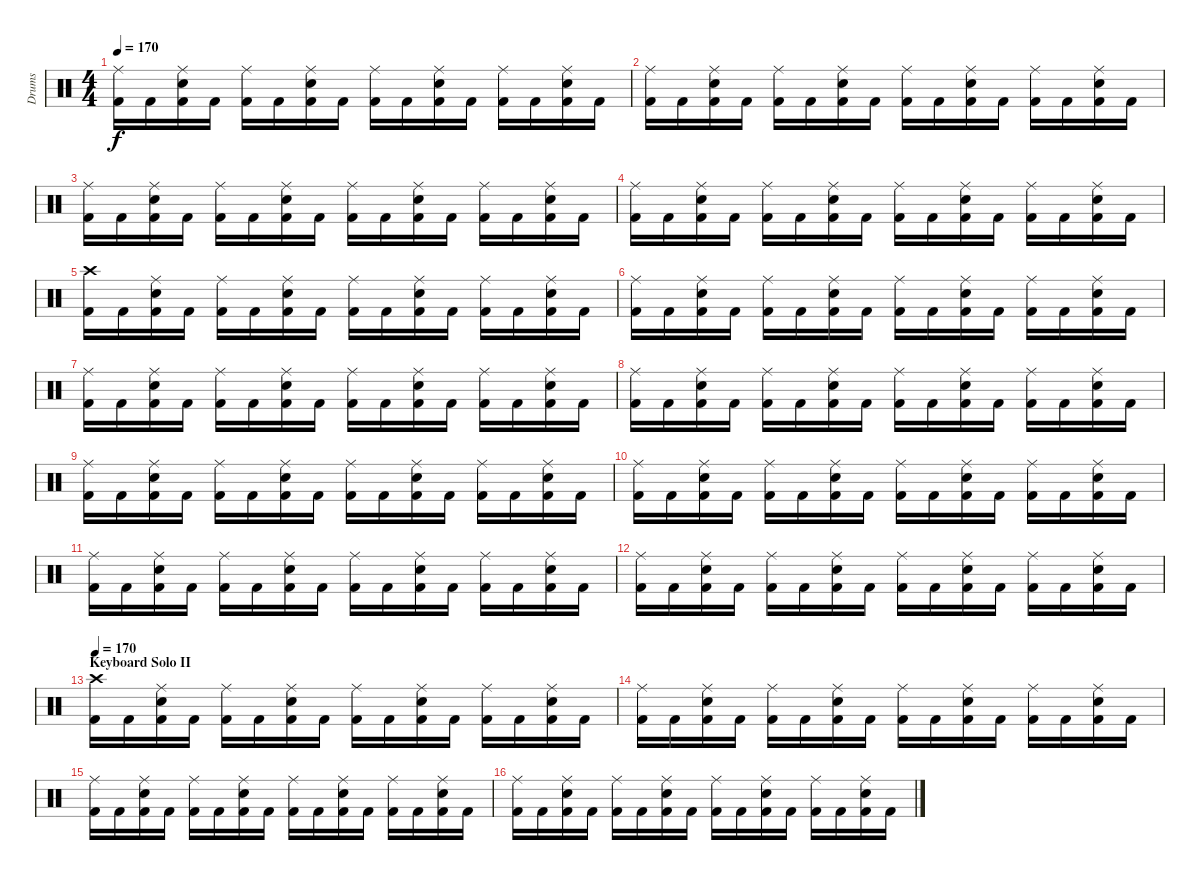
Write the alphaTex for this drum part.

\track ("Drums" "Drums") {instrument percussion}
\staff {score}
\articulation defaults
\ts (4 4)
\tempo 170
\clef neutral
\ks c
("Ride (middle)" "Kick (hit) 2").16{dy f} "Kick (hit) 2".16 ("Ride (middle)" "Electric Snare (hit)" "Kick (hit) 2").16 "Kick (hit) 2".16 ("Ride (middle)" "Kick (hit) 2").16 "Kick (hit) 2".16 ("Ride (middle)" "Electric Snare (hit)" "Kick (hit) 2").16 "Kick (hit) 2".16 ("Ride (middle)" "Kick (hit) 2").16 "Kick (hit) 2".16 ("Ride (middle)" "Electric Snare (hit)" "Kick (hit) 2").16 "Kick (hit) 2".16 ("Ride (middle)" "Kick (hit) 2").16 "Kick (hit) 2".16 ("Ride (middle)" "Electric Snare (hit)" "Kick (hit) 2").16 "Kick (hit) 2".16 |
("Ride (middle)" "Kick (hit) 2").16 "Kick (hit) 2".16 ("Ride (middle)" "Electric Snare (hit)" "Kick (hit) 2").16 "Kick (hit) 2".16 ("Ride (middle)" "Kick (hit) 2").16 "Kick (hit) 2".16 ("Ride (middle)" "Electric Snare (hit)" "Kick (hit) 2").16 "Kick (hit) 2".16 ("Ride (middle)" "Kick (hit) 2").16 "Kick (hit) 2".16 ("Ride (middle)" "Electric Snare (hit)" "Kick (hit) 2").16 "Kick (hit) 2".16 ("Ride (middle)" "Kick (hit) 2").16 "Kick (hit) 2".16 ("Ride (middle)" "Electric Snare (hit)" "Kick (hit) 2").16 "Kick (hit) 2".16 |
("Ride (middle)" "Kick (hit) 2").16 "Kick (hit) 2".16 ("Ride (middle)" "Electric Snare (hit)" "Kick (hit) 2").16 "Kick (hit) 2".16 ("Ride (middle)" "Kick (hit) 2").16 "Kick (hit) 2".16 ("Ride (middle)" "Electric Snare (hit)" "Kick (hit) 2").16 "Kick (hit) 2".16 ("Ride (middle)" "Kick (hit) 2").16 "Kick (hit) 2".16 ("Ride (middle)" "Electric Snare (hit)" "Kick (hit) 2").16 "Kick (hit) 2".16 ("Ride (middle)" "Kick (hit) 2").16 "Kick (hit) 2".16 ("Ride (middle)" "Electric Snare (hit)" "Kick (hit) 2").16 "Kick (hit) 2".16 |
("Ride (middle)" "Kick (hit) 2").16 "Kick (hit) 2".16 ("Ride (middle)" "Electric Snare (hit)" "Kick (hit) 2").16 "Kick (hit) 2".16 ("Ride (middle)" "Kick (hit) 2").16 "Kick (hit) 2".16 ("Ride (middle)" "Electric Snare (hit)" "Kick (hit) 2").16 "Kick (hit) 2".16 ("Ride (middle)" "Kick (hit) 2").16 "Kick (hit) 2".16 ("Ride (middle)" "Electric Snare (hit)" "Kick (hit) 2").16 "Kick (hit) 2".16 ("Ride (middle)" "Kick (hit) 2").16 "Kick (hit) 2".16 ("Ride (middle)" "Electric Snare (hit)" "Kick (hit) 2").16 "Kick (hit) 2".16 |
("Crash high (hit)" "Kick (hit) 2").16 "Kick (hit) 2".16 ("Ride (middle)" "Electric Snare (hit)" "Kick (hit) 2").16 "Kick (hit) 2".16 ("Ride (middle)" "Kick (hit) 2").16 "Kick (hit) 2".16 ("Ride (middle)" "Electric Snare (hit)" "Kick (hit) 2").16 "Kick (hit) 2".16 ("Ride (middle)" "Kick (hit) 2").16 "Kick (hit) 2".16 ("Ride (middle)" "Electric Snare (hit)" "Kick (hit) 2").16 "Kick (hit) 2".16 ("Ride (middle)" "Kick (hit) 2").16 "Kick (hit) 2".16 ("Ride (middle)" "Electric Snare (hit)" "Kick (hit) 2").16 "Kick (hit) 2".16 |
("Ride (middle)" "Kick (hit) 2").16 "Kick (hit) 2".16 ("Ride (middle)" "Electric Snare (hit)" "Kick (hit) 2").16 "Kick (hit) 2".16 ("Ride (middle)" "Kick (hit) 2").16 "Kick (hit) 2".16 ("Ride (middle)" "Electric Snare (hit)" "Kick (hit) 2").16 "Kick (hit) 2".16 ("Ride (middle)" "Kick (hit) 2").16 "Kick (hit) 2".16 ("Ride (middle)" "Electric Snare (hit)" "Kick (hit) 2").16 "Kick (hit) 2".16 ("Ride (middle)" "Kick (hit) 2").16 "Kick (hit) 2".16 ("Ride (middle)" "Electric Snare (hit)" "Kick (hit) 2").16 "Kick (hit) 2".16 |
("Ride (middle)" "Kick (hit) 2").16 "Kick (hit) 2".16 ("Ride (middle)" "Electric Snare (hit)" "Kick (hit) 2").16 "Kick (hit) 2".16 ("Ride (middle)" "Kick (hit) 2").16 "Kick (hit) 2".16 ("Ride (middle)" "Electric Snare (hit)" "Kick (hit) 2").16 "Kick (hit) 2".16 ("Ride (middle)" "Kick (hit) 2").16 "Kick (hit) 2".16 ("Ride (middle)" "Electric Snare (hit)" "Kick (hit) 2").16 "Kick (hit) 2".16 ("Ride (middle)" "Kick (hit) 2").16 "Kick (hit) 2".16 ("Ride (middle)" "Electric Snare (hit)" "Kick (hit) 2").16 "Kick (hit) 2".16 |
("Ride (middle)" "Kick (hit) 2").16 "Kick (hit) 2".16 ("Ride (middle)" "Electric Snare (hit)" "Kick (hit) 2").16 "Kick (hit) 2".16 ("Ride (middle)" "Kick (hit) 2").16 "Kick (hit) 2".16 ("Ride (middle)" "Electric Snare (hit)" "Kick (hit) 2").16 "Kick (hit) 2".16 ("Ride (middle)" "Kick (hit) 2").16 "Kick (hit) 2".16 ("Ride (middle)" "Electric Snare (hit)" "Kick (hit) 2").16 "Kick (hit) 2".16 ("Ride (middle)" "Kick (hit) 2").16 "Kick (hit) 2".16 ("Ride (middle)" "Electric Snare (hit)" "Kick (hit) 2").16 "Kick (hit) 2".16 |
("Ride (middle)" "Kick (hit) 2").16 "Kick (hit) 2".16 ("Ride (middle)" "Electric Snare (hit)" "Kick (hit) 2").16 "Kick (hit) 2".16 ("Ride (middle)" "Kick (hit) 2").16 "Kick (hit) 2".16 ("Ride (middle)" "Electric Snare (hit)" "Kick (hit) 2").16 "Kick (hit) 2".16 ("Ride (middle)" "Kick (hit) 2").16 "Kick (hit) 2".16 ("Ride (middle)" "Electric Snare (hit)" "Kick (hit) 2").16 "Kick (hit) 2".16 ("Ride (middle)" "Kick (hit) 2").16 "Kick (hit) 2".16 ("Ride (middle)" "Electric Snare (hit)" "Kick (hit) 2").16 "Kick (hit) 2".16 |
("Ride (middle)" "Kick (hit) 2").16 "Kick (hit) 2".16 ("Ride (middle)" "Electric Snare (hit)" "Kick (hit) 2").16 "Kick (hit) 2".16 ("Ride (middle)" "Kick (hit) 2").16 "Kick (hit) 2".16 ("Ride (middle)" "Electric Snare (hit)" "Kick (hit) 2").16 "Kick (hit) 2".16 ("Ride (middle)" "Kick (hit) 2").16 "Kick (hit) 2".16 ("Ride (middle)" "Electric Snare (hit)" "Kick (hit) 2").16 "Kick (hit) 2".16 ("Ride (middle)" "Kick (hit) 2").16 "Kick (hit) 2".16 ("Ride (middle)" "Electric Snare (hit)" "Kick (hit) 2").16 "Kick (hit) 2".16 |
("Ride (middle)" "Kick (hit) 2").16 "Kick (hit) 2".16 ("Ride (middle)" "Electric Snare (hit)" "Kick (hit) 2").16 "Kick (hit) 2".16 ("Ride (middle)" "Kick (hit) 2").16 "Kick (hit) 2".16 ("Ride (middle)" "Electric Snare (hit)" "Kick (hit) 2").16 "Kick (hit) 2".16 ("Ride (middle)" "Kick (hit) 2").16 "Kick (hit) 2".16 ("Ride (middle)" "Electric Snare (hit)" "Kick (hit) 2").16 "Kick (hit) 2".16 ("Ride (middle)" "Kick (hit) 2").16 "Kick (hit) 2".16 ("Ride (middle)" "Electric Snare (hit)" "Kick (hit) 2").16 "Kick (hit) 2".16 |
("Ride (middle)" "Kick (hit) 2").16 "Kick (hit) 2".16 ("Ride (middle)" "Electric Snare (hit)" "Kick (hit) 2").16 "Kick (hit) 2".16 ("Ride (middle)" "Kick (hit) 2").16 "Kick (hit) 2".16 ("Ride (middle)" "Electric Snare (hit)" "Kick (hit) 2").16 "Kick (hit) 2".16 ("Ride (middle)" "Kick (hit) 2").16 "Kick (hit) 2".16 ("Ride (middle)" "Electric Snare (hit)" "Kick (hit) 2").16 "Kick (hit) 2".16 ("Ride (middle)" "Kick (hit) 2").16 "Kick (hit) 2".16 ("Ride (middle)" "Electric Snare (hit)" "Kick (hit) 2").16 "Kick (hit) 2".16 |
\section ("" "Keyboard Solo II")
\tempo 170
("Crash high (hit)" "Kick (hit) 2").16 "Kick (hit) 2".16 ("Ride (middle)" "Electric Snare (hit)" "Kick (hit) 2").16 "Kick (hit) 2".16 ("Ride (middle)" "Kick (hit) 2").16 "Kick (hit) 2".16 ("Ride (middle)" "Electric Snare (hit)" "Kick (hit) 2").16 "Kick (hit) 2".16 ("Ride (middle)" "Kick (hit) 2").16 "Kick (hit) 2".16 ("Ride (middle)" "Electric Snare (hit)" "Kick (hit) 2").16 "Kick (hit) 2".16 ("Ride (middle)" "Kick (hit) 2").16 "Kick (hit) 2".16 ("Ride (middle)" "Electric Snare (hit)" "Kick (hit) 2").16 "Kick (hit) 2".16 |
("Ride (middle)" "Kick (hit) 2").16 "Kick (hit) 2".16 ("Ride (middle)" "Electric Snare (hit)" "Kick (hit) 2").16 "Kick (hit) 2".16 ("Ride (middle)" "Kick (hit) 2").16 "Kick (hit) 2".16 ("Ride (middle)" "Electric Snare (hit)" "Kick (hit) 2").16 "Kick (hit) 2".16 ("Ride (middle)" "Kick (hit) 2").16 "Kick (hit) 2".16 ("Ride (middle)" "Electric Snare (hit)" "Kick (hit) 2").16 "Kick (hit) 2".16 ("Ride (middle)" "Kick (hit) 2").16 "Kick (hit) 2".16 ("Ride (middle)" "Electric Snare (hit)" "Kick (hit) 2").16 "Kick (hit) 2".16 |
("Ride (middle)" "Kick (hit) 2").16 "Kick (hit) 2".16 ("Ride (middle)" "Electric Snare (hit)" "Kick (hit) 2").16 "Kick (hit) 2".16 ("Ride (middle)" "Kick (hit) 2").16 "Kick (hit) 2".16 ("Ride (middle)" "Electric Snare (hit)" "Kick (hit) 2").16 "Kick (hit) 2".16 ("Ride (middle)" "Kick (hit) 2").16 "Kick (hit) 2".16 ("Ride (middle)" "Electric Snare (hit)" "Kick (hit) 2").16 "Kick (hit) 2".16 ("Ride (middle)" "Kick (hit) 2").16 "Kick (hit) 2".16 ("Ride (middle)" "Electric Snare (hit)" "Kick (hit) 2").16 "Kick (hit) 2".16 |
("Ride (middle)" "Kick (hit) 2").16 "Kick (hit) 2".16 ("Ride (middle)" "Electric Snare (hit)" "Kick (hit) 2").16 "Kick (hit) 2".16 ("Ride (middle)" "Kick (hit) 2").16 "Kick (hit) 2".16 ("Ride (middle)" "Electric Snare (hit)" "Kick (hit) 2").16 "Kick (hit) 2".16 ("Ride (middle)" "Kick (hit) 2").16 "Kick (hit) 2".16 ("Ride (middle)" "Electric Snare (hit)" "Kick (hit) 2").16 "Kick (hit) 2".16 ("Ride (middle)" "Kick (hit) 2").16 "Kick (hit) 2".16 ("Ride (middle)" "Electric Snare (hit)" "Kick (hit) 2").16 "Kick (hit) 2".16
